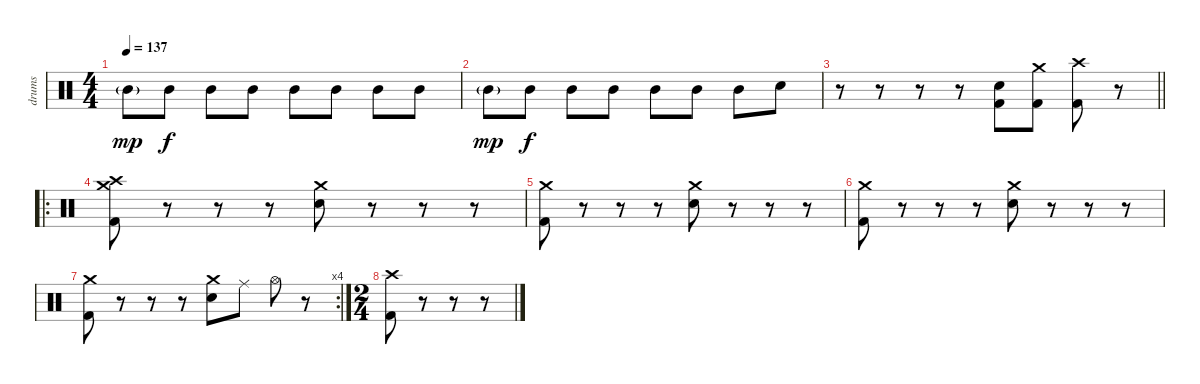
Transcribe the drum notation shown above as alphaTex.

\track ("drums" "drums") {instrument percussion}
\staff {score}
\articulation defaults
\ts (4 4)
\tempo 137
\clef neutral
\ks c "Mid Tom (hit)"{g}.8{dy mp} "Mid Tom (hit)".8{dy f} "Mid Tom (hit)".8 "Mid Tom (hit)".8 "Mid Tom (hit)".8 "Mid Tom (hit)".8 "Mid Tom (hit)".8 "Mid Tom (hit)".8
|
"Mid Tom (hit)"{g}.8{dy mp} "Mid Tom (hit)".8{dy f} "Mid Tom (hit)".8 "Mid Tom (hit)".8 "Mid Tom (hit)".8 "Mid Tom (hit)".8 "Mid Tom (hit)".8 "Snare (hit) 2".8 |
\barLineRight lightlight
r.8 r.8 r.8 r.8 ("Snare (hit) 2" "Kick (hit) 2").8 ("Crash medium (hit)" "Kick (hit) 2").8 ("Crash high (hit)" "Kick (hit) 2").8 r.8 |
\ro
("Crash medium (hit)" "Crash high (hit)" "Kick (hit) 2").8 r.8 r.8 r.8 ("Crash medium (hit)" "Snare (hit) 2").8 r.8 r.8 r.8 |
("Crash medium (hit)" "Kick (hit) 2").8 r.8 r.8 r.8 ("Crash medium (hit)" "Snare (hit) 2").8 r.8 r.8 r.8 |
("Crash medium (hit)" "Kick (hit) 2").8 r.8 r.8 r.8 ("Crash medium (hit)" "Snare (hit) 2").8 r.8 r.8 r.8 |
\rc 4
("Crash medium (hit)" "Kick (hit) 2").8 r.8 r.8 r.8 ("Crash medium (hit)" "Snare (hit) 2").8 "Ride (middle)".8 "Hi-Hat (open)".8 r.8 |
\ts (2 4)
("Crash high (hit)" "Kick (hit) 2").8 r.8 r.8 r.8
